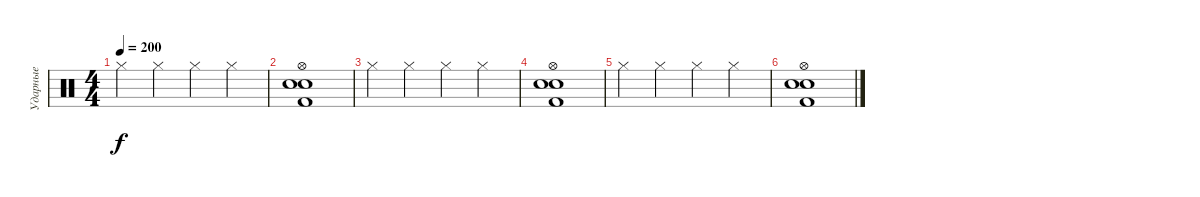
\track ("Ударные" "Ударные") {solo instrument percussion}
\staff {score}
\articulation defaults
\ts (4 4)
\tempo 200
\clef neutral
\ks c "Hi-Hat (closed)".4{dy f} "Hi-Hat (closed)".4 "Hi-Hat (closed)".4 "Hi-Hat (closed)".4
|
("Electric Snare (hit)" "Kick (hit) 2" "Snare (hit) 2" "Hi-Hat (open)").1 |
"Hi-Hat (closed)".4 "Hi-Hat (closed)".4 "Hi-Hat (closed)".4 "Hi-Hat (closed)".4 |
("Snare (hit) 2" "Kick (hit) 2" "Hi-Hat (open)" "Electric Snare (hit)").1 |
"Hi-Hat (closed)".4 "Hi-Hat (closed)".4 "Hi-Hat (closed)".4 "Hi-Hat (closed)".4 |
("Snare (hit) 2" "Kick (hit) 2" "Hi-Hat (open)" "Electric Snare (hit)").1
